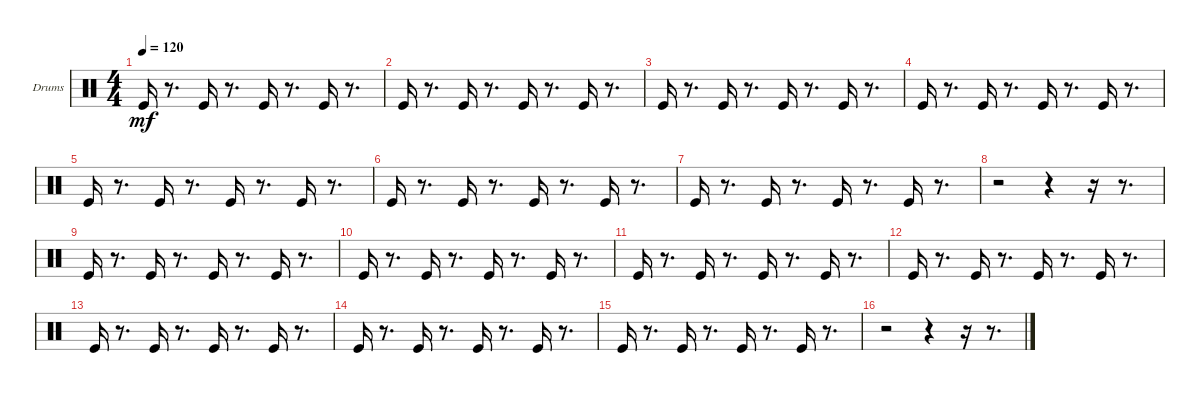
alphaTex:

\bracketExtendMode groupsimilarinstruments
\firstSystemTrackNameOrientation horizontal
\otherSystemsTrackNameOrientation horizontal
\track ("Drums" "Drums") {instrument percussion}
\staff {score}
\articulation defaults
\ts (4 4)
\tempo 120
\clef neutral
\ks c "Kick (hit)".16{dy mf}
r.8{d} "Kick (hit)".16 r.8{d} "Kick (hit)".16 r.8{d} "Kick (hit)".16 r.8{d} |
"Kick (hit)".16 r.8{d} "Kick (hit)".16 r.8{d} "Kick (hit)".16 r.8{d} "Kick (hit)".16 r.8{d} |
"Kick (hit)".16 r.8{d} "Kick (hit)".16 r.8{d} "Kick (hit)".16 r.8{d} "Kick (hit)".16 r.8{d} |
"Kick (hit)".16 r.8{d} "Kick (hit)".16 r.8{d} "Kick (hit)".16 r.8{d} "Kick (hit)".16 r.8{d} |
"Kick (hit)".16 r.8{d} "Kick (hit)".16 r.8{d} "Kick (hit)".16 r.8{d} "Kick (hit)".16 r.8{d} |
"Kick (hit)".16 r.8{d} "Kick (hit)".16 r.8{d} "Kick (hit)".16 r.8{d} "Kick (hit)".16 r.8{d} |
"Kick (hit)".16 r.8{d} "Kick (hit)".16 r.8{d} "Kick (hit)".16 r.8{d} "Kick (hit)".16 r.8{d} |
r.2 r.4 r.16 r.8{d} |
"Kick (hit)".16 r.8{d} "Kick (hit)".16 r.8{d} "Kick (hit)".16 r.8{d} "Kick (hit)".16 r.8{d} |
"Kick (hit)".16 r.8{d} "Kick (hit)".16 r.8{d} "Kick (hit)".16 r.8{d} "Kick (hit)".16 r.8{d} |
"Kick (hit)".16 r.8{d} "Kick (hit)".16 r.8{d} "Kick (hit)".16 r.8{d} "Kick (hit)".16 r.8{d} |
"Kick (hit)".16 r.8{d} "Kick (hit)".16 r.8{d} "Kick (hit)".16 r.8{d} "Kick (hit)".16 r.8{d} |
"Kick (hit)".16 r.8{d} "Kick (hit)".16 r.8{d} "Kick (hit)".16 r.8{d} "Kick (hit)".16 r.8{d} |
"Kick (hit)".16 r.8{d} "Kick (hit)".16 r.8{d} "Kick (hit)".16 r.8{d} "Kick (hit)".16 r.8{d} |
"Kick (hit)".16 r.8{d} "Kick (hit)".16 r.8{d} "Kick (hit)".16 r.8{d} "Kick (hit)".16 r.8{d} |
r.2 r.4 r.16 r.8{d}
